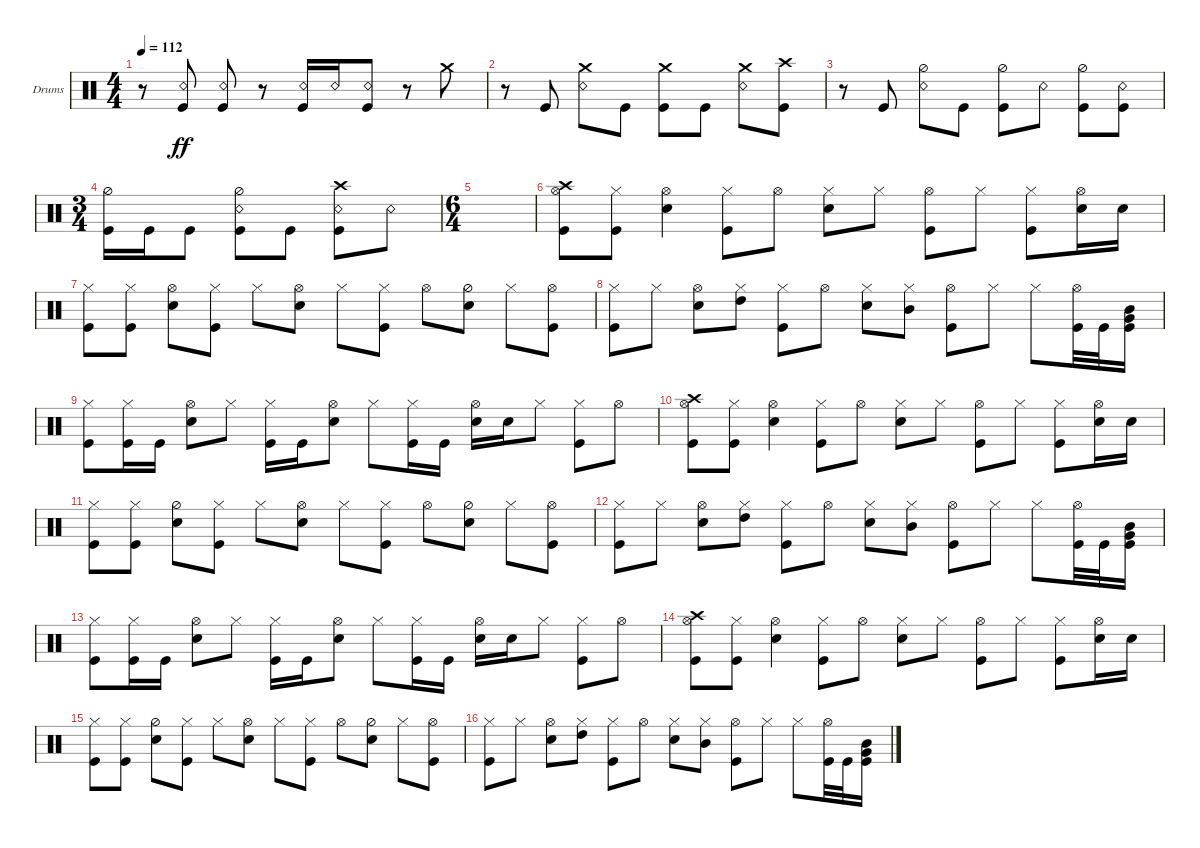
\defaultSystemsLayout 4
\bracketExtendMode groupsimilarinstruments
\firstSystemTrackNameOrientation horizontal
\otherSystemsTrackNameOrientation horizontal
\track ("Drumkit" "Drums") {instrument percussion}
\staff {score}
\articulation defaults
\ts (4 4)
\tempo 112
\clef neutral
\ks c
r.8{dy ff} ("Snare (rim shot)" "Kick (hit)").8 ("Snare (rim shot)" "Kick (hit)").8 r.8 ("Snare (rim shot)" "Kick (hit)").16 "Snare (rim shot)".16 ("Snare (rim shot)" "Kick (hit)").8 r.8 "Crash medium (hit)".8 |
r.8 "Kick (hit)".8 ("Snare (rim shot)" "Crash medium (hit)").8 "Kick (hit)".8 ("Kick (hit)" "Crash medium (hit)").8 "Kick (hit)".8 ("Snare (rim shot)" "Crash medium (hit)").8 ("Kick (hit)" "Crash high (hit)").8 |
r.8 "Kick (hit)".8 ("Snare (rim shot)" "Hi-Hat (half)").8 "Kick (hit)".8 ("Kick (hit)" "Hi-Hat (half)").8 "Snare (rim shot)".8 ("Kick (hit)" "Hi-Hat (half)").8 ("Snare (rim shot)" "Kick (hit)").8 |
\ts (3 4)
("Kick (hit)" "Hi-Hat (half)").16 "Kick (hit)".16 "Kick (hit)".8 ("Kick (hit)" "Hi-Hat (half)" "Snare (rim shot)").8 "Kick (hit)".8 ("Kick (hit)" "Snare (rim shot)" "Crash high (hit)").8 "Snare (rim shot)".8 |
\ts (6 4)
|
("Hi-Hat (open)" "Kick (hit)" "Crash high (hit)").8 ("Kick (hit)" "Hi-Hat (closed)").8 ("Hi-Hat (open)" "Snare (hit) 2").4 ("Kick (hit)" "Hi-Hat (closed)").8 "Hi-Hat (open)".8 ("Hi-Hat (closed)" "Snare (hit) 2").8 "Hi-Hat (closed)".8 ("Hi-Hat (open)" "Kick (hit)").8 "Hi-Hat (closed)".8 ("Kick (hit)" "Hi-Hat (closed)").8 ("Snare (hit) 2" "Hi-Hat (open)").16 "Snare (hit) 2".16 |
("Hi-Hat (closed)" "Kick (hit)").8 ("Hi-Hat (closed)" "Kick (hit)").8 ("Hi-Hat (open)" "Snare (hit) 2").8 ("Hi-Hat (closed)" "Kick (hit)").8 "Hi-Hat (closed)".8 ("Hi-Hat (open)" "Snare (hit) 2").8 "Hi-Hat (closed)".8 ("Hi-Hat (closed)" "Kick (hit)").8 "Hi-Hat (open)".8 ("Hi-Hat (half)" "Snare (hit) 2").8 "Hi-Hat (closed)".8 ("Hi-Hat (open)" "Kick (hit)").8 |
("Kick (hit)" "Hi-Hat (closed)").8 "Hi-Hat (closed)".8 ("Hi-Hat (open)" "Snare (hit) 2").8 ("Hi-Hat (closed)" "High Tom (hit)").8 ("Hi-Hat (closed)" "Kick (hit)").8 "Hi-Hat (open)".8 ("Hi-Hat (closed)" "Snare (hit) 2").8 ("Hi-Hat (closed)" "Mid Tom (hit)").8 ("Hi-Hat (open)" "Kick (hit)").8 "Hi-Hat (closed)".8 "Hi-Hat (closed)".8 ("Kick (hit)" "Hi-Hat (open)").32 "Kick (hit)".32 ("Mid Tom (hit)" "Very Low Tom (hit)" "Kick (hit)").16 |
("Kick (hit)" "Hi-Hat (closed)").8 ("Kick (hit)" "Hi-Hat (closed)").16 "Kick (hit)".16 ("Snare (hit) 2" "Hi-Hat (open)").8 "Hi-Hat (closed)".8 ("Hi-Hat (closed)" "Kick (hit)").16 "Kick (hit)".16 ("Hi-Hat (open)" "Snare (hit) 2").8 "Hi-Hat (closed)".8 ("Hi-Hat (closed)" "Kick (hit)").16 "Kick (hit)".16 ("Hi-Hat (open)" "Snare (hit) 2").16 "Snare (hit) 2".16 "Hi-Hat (closed)".8 ("Hi-Hat (closed)" "Kick (hit)").8 "Hi-Hat (open)".8 |
("Hi-Hat (open)" "Kick (hit)" "Crash high (hit)").8 ("Kick (hit)" "Hi-Hat (closed)").8 ("Hi-Hat (open)" "Snare (hit) 2").4 ("Kick (hit)" "Hi-Hat (closed)").8 "Hi-Hat (open)".8 ("Hi-Hat (closed)" "Snare (hit) 2").8 "Hi-Hat (closed)".8 ("Hi-Hat (open)" "Kick (hit)").8 "Hi-Hat (closed)".8 ("Kick (hit)" "Hi-Hat (closed)").8 ("Snare (hit) 2" "Hi-Hat (open)").16 "Snare (hit) 2".16 |
("Hi-Hat (closed)" "Kick (hit)").8 ("Hi-Hat (closed)" "Kick (hit)").8 ("Hi-Hat (half)" "Snare (hit) 2").8 ("Hi-Hat (closed)" "Kick (hit)").8 "Hi-Hat (closed)".8 ("Hi-Hat (open)" "Snare (hit) 2").8 "Hi-Hat (closed)".8 ("Hi-Hat (closed)" "Kick (hit)").8 "Hi-Hat (open)".8 ("Hi-Hat (half)" "Snare (hit) 2").8 "Hi-Hat (closed)".8 ("Hi-Hat (open)" "Kick (hit)").8 |
("Kick (hit)" "Hi-Hat (closed)").8 "Hi-Hat (closed)".8 ("Hi-Hat (open)" "Snare (hit) 2").8 ("Hi-Hat (closed)" "High Tom (hit)").8 ("Hi-Hat (closed)" "Kick (hit)").8 "Hi-Hat (open)".8 ("Hi-Hat (closed)" "Snare (hit) 2").8 ("Hi-Hat (closed)" "Mid Tom (hit)").8 ("Hi-Hat (open)" "Kick (hit)").8 "Hi-Hat (closed)".8 "Hi-Hat (closed)".8 ("Kick (hit)" "Hi-Hat (open)").32 "Kick (hit)".32 ("Mid Tom (hit)" "Very Low Tom (hit)" "Kick (hit)").16 |
("Kick (hit)" "Hi-Hat (closed)").8 ("Kick (hit)" "Hi-Hat (closed)").16 "Kick (hit)".16 ("Snare (hit) 2" "Hi-Hat (open)").8 "Hi-Hat (closed)".8 ("Hi-Hat (closed)" "Kick (hit)").16 "Kick (hit)".16 ("Hi-Hat (open)" "Snare (hit) 2").8 "Hi-Hat (closed)".8 ("Hi-Hat (closed)" "Kick (hit)").16 "Kick (hit)".16 ("Hi-Hat (open)" "Snare (hit) 2").16 "Snare (hit) 2".16 "Hi-Hat (closed)".8 ("Hi-Hat (closed)" "Kick (hit)").8 "Hi-Hat (open)".8 |
("Hi-Hat (open)" "Kick (hit)" "Crash high (hit)").8 ("Kick (hit)" "Hi-Hat (closed)").8 ("Hi-Hat (open)" "Snare (hit) 2").4 ("Kick (hit)" "Hi-Hat (closed)").8 "Hi-Hat (open)".8 ("Hi-Hat (closed)" "Snare (hit) 2").8 "Hi-Hat (closed)".8 ("Hi-Hat (open)" "Kick (hit)").8 "Hi-Hat (closed)".8 ("Kick (hit)" "Hi-Hat (closed)").8 ("Snare (hit) 2" "Hi-Hat (open)").16 "Snare (hit) 2".16 |
("Hi-Hat (closed)" "Kick (hit)").8 ("Hi-Hat (closed)" "Kick (hit)").8 ("Hi-Hat (half)" "Snare (hit) 2").8 ("Hi-Hat (closed)" "Kick (hit)").8 "Hi-Hat (closed)".8 ("Hi-Hat (open)" "Snare (hit) 2").8 "Hi-Hat (closed)".8 ("Hi-Hat (closed)" "Kick (hit)").8 "Hi-Hat (open)".8 ("Hi-Hat (half)" "Snare (hit) 2").8 "Hi-Hat (closed)".8 ("Hi-Hat (open)" "Kick (hit)").8 |
("Kick (hit)" "Hi-Hat (closed)").8 "Hi-Hat (closed)".8 ("Hi-Hat (open)" "Snare (hit) 2").8 ("Hi-Hat (closed)" "High Tom (hit)").8 ("Hi-Hat (closed)" "Kick (hit)").8 "Hi-Hat (open)".8 ("Hi-Hat (closed)" "Snare (hit) 2").8 ("Hi-Hat (closed)" "Mid Tom (hit)").8 ("Hi-Hat (open)" "Kick (hit)").8 "Hi-Hat (closed)".8 "Hi-Hat (closed)".8 ("Kick (hit)" "Hi-Hat (open)").32 "Kick (hit)".32 ("Mid Tom (hit)" "Very Low Tom (hit)" "Kick (hit)").16
